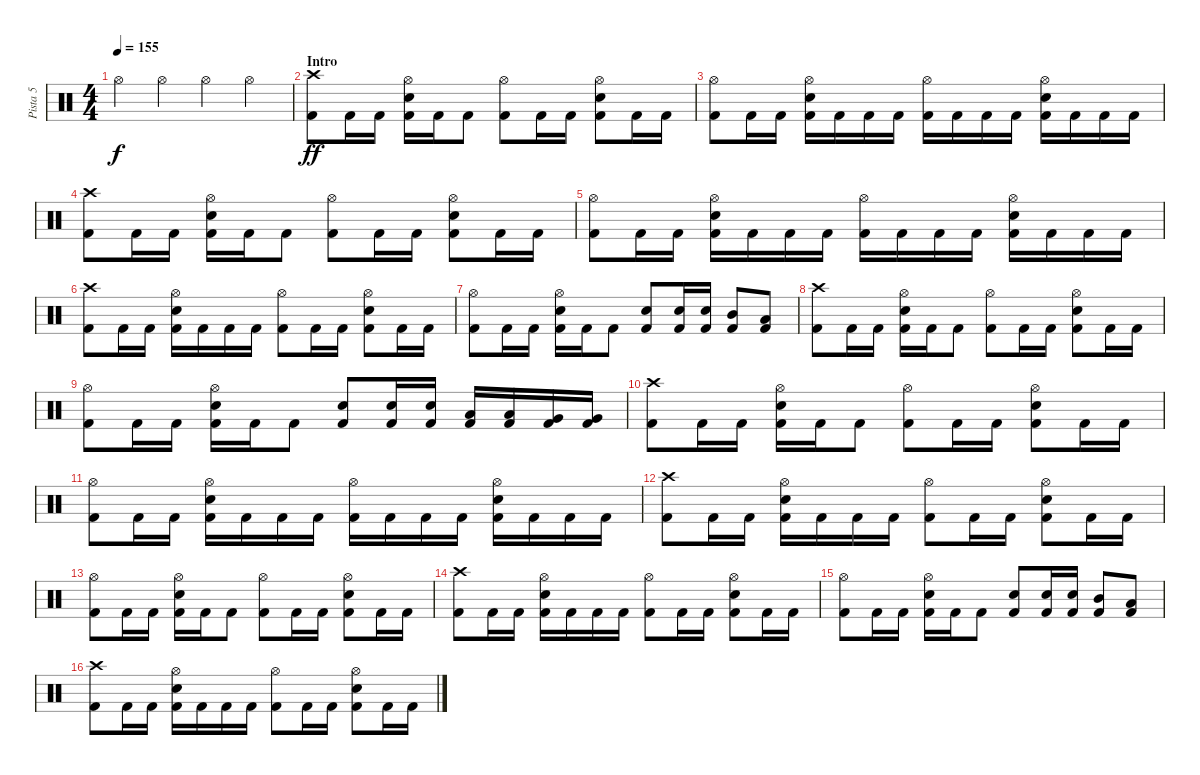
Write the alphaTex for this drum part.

\track ("Pista 5" "Pista 5") {instrument percussion}
\staff {score}
\articulation defaults
\ts (4 4)
\tempo 155
\clef neutral
\ks c "Hi-Hat (open)".4{dy f} "Hi-Hat (open)".4 "Hi-Hat (open)".4 "Hi-Hat (open)".4
|
\section ("" "Intro")
("Crash high (hit)" "Kick (hit) 2").8{dy ff} "Kick (hit) 2".16 "Kick (hit) 2".16 ("Hi-Hat (open)" "Electric Snare (hit)" "Kick (hit) 2").16 "Kick (hit) 2".16 "Kick (hit) 2".8 ("Hi-Hat (open)" "Kick (hit) 2").8 "Kick (hit) 2".16 "Kick (hit) 2".16 ("Hi-Hat (open)" "Electric Snare (hit)" "Kick (hit) 2").8 "Kick (hit) 2".16 "Kick (hit) 2".16 |
("Hi-Hat (open)" "Kick (hit) 2").8 "Kick (hit) 2".16 "Kick (hit) 2".16 ("Hi-Hat (open)" "Electric Snare (hit)" "Kick (hit) 2").16 "Kick (hit) 2".16 "Kick (hit) 2".16 "Kick (hit) 2".16 ("Hi-Hat (open)" "Kick (hit) 2").16 "Kick (hit) 2".16 "Kick (hit) 2".16 "Kick (hit) 2".16 ("Hi-Hat (open)" "Electric Snare (hit)" "Kick (hit) 2").16 "Kick (hit) 2".16 "Kick (hit) 2".16 "Kick (hit) 2".16 |
("Crash high (hit)" "Kick (hit) 2").8 "Kick (hit) 2".16 "Kick (hit) 2".16 ("Hi-Hat (open)" "Electric Snare (hit)" "Kick (hit) 2").16 "Kick (hit) 2".16 "Kick (hit) 2".8 ("Hi-Hat (open)" "Kick (hit) 2").8 "Kick (hit) 2".16 "Kick (hit) 2".16 ("Hi-Hat (open)" "Electric Snare (hit)" "Kick (hit) 2").8 "Kick (hit) 2".16 "Kick (hit) 2".16 |
("Hi-Hat (open)" "Kick (hit) 2").8 "Kick (hit) 2".16 "Kick (hit) 2".16 ("Hi-Hat (open)" "Electric Snare (hit)" "Kick (hit) 2").16 "Kick (hit) 2".16 "Kick (hit) 2".16 "Kick (hit) 2".16 ("Hi-Hat (open)" "Kick (hit) 2").16 "Kick (hit) 2".16 "Kick (hit) 2".16 "Kick (hit) 2".16 ("Hi-Hat (open)" "Electric Snare (hit)" "Kick (hit) 2").16 "Kick (hit) 2".16 "Kick (hit) 2".16 "Kick (hit) 2".16 |
("Crash high (hit)" "Kick (hit) 2").8 "Kick (hit) 2".16 "Kick (hit) 2".16 ("Hi-Hat (open)" "Electric Snare (hit)" "Kick (hit) 2").16 "Kick (hit) 2".16 "Kick (hit) 2".16 "Kick (hit) 2".16 ("Hi-Hat (open)" "Kick (hit) 2").8 "Kick (hit) 2".16 "Kick (hit) 2".16 ("Hi-Hat (open)" "Electric Snare (hit)" "Kick (hit) 2").8 "Kick (hit) 2".16 "Kick (hit) 2".16 |
("Hi-Hat (open)" "Kick (hit) 2").8 "Kick (hit) 2".16 "Kick (hit) 2".16 ("Hi-Hat (open)" "Electric Snare (hit)" "Kick (hit) 2").16 "Kick (hit) 2".16 "Kick (hit) 2".8 ("Electric Snare (hit)" "Kick (hit) 2").8 ("Electric Snare (hit)" "Kick (hit) 2").16 ("Electric Snare (hit)" "Kick (hit) 2").16 ("Mid Tom (hit)" "Kick (hit) 2").8 ("Low Tom (hit)" "Kick (hit) 2").8 |
("Crash high (hit)" "Kick (hit) 2").8 "Kick (hit) 2".16 "Kick (hit) 2".16 ("Hi-Hat (open)" "Electric Snare (hit)" "Kick (hit) 2").16 "Kick (hit) 2".16 "Kick (hit) 2".8 ("Hi-Hat (open)" "Kick (hit) 2").8 "Kick (hit) 2".16 "Kick (hit) 2".16 ("Hi-Hat (open)" "Electric Snare (hit)" "Kick (hit) 2").8 "Kick (hit) 2".16 "Kick (hit) 2".16 |
("Hi-Hat (open)" "Kick (hit) 2").8 "Kick (hit) 2".16 "Kick (hit) 2".16 ("Hi-Hat (open)" "Electric Snare (hit)" "Kick (hit) 2").16 "Kick (hit) 2".16 "Kick (hit) 2".8 ("Electric Snare (hit)" "Kick (hit) 2").8 ("Electric Snare (hit)" "Kick (hit) 2").16 ("Electric Snare (hit)" "Kick (hit) 2").16 ("Low Tom (hit)" "Kick (hit) 2").16 ("Low Tom (hit)" "Kick (hit) 2").16 ("Very Low Tom (hit)" "Kick (hit) 2").16 ("Very Low Tom (hit)" "Kick (hit) 2").16 |
("Crash high (hit)" "Kick (hit) 2").8 "Kick (hit) 2".16 "Kick (hit) 2".16 ("Hi-Hat (open)" "Electric Snare (hit)" "Kick (hit) 2").16 "Kick (hit) 2".16 "Kick (hit) 2".8 ("Hi-Hat (open)" "Kick (hit) 2").8 "Kick (hit) 2".16 "Kick (hit) 2".16 ("Hi-Hat (open)" "Electric Snare (hit)" "Kick (hit) 2").8 "Kick (hit) 2".16 "Kick (hit) 2".16 |
("Hi-Hat (open)" "Kick (hit) 2").8 "Kick (hit) 2".16 "Kick (hit) 2".16 ("Hi-Hat (open)" "Electric Snare (hit)" "Kick (hit) 2").16 "Kick (hit) 2".16 "Kick (hit) 2".16 "Kick (hit) 2".16 ("Hi-Hat (open)" "Kick (hit) 2").16 "Kick (hit) 2".16 "Kick (hit) 2".16 "Kick (hit) 2".16 ("Hi-Hat (open)" "Electric Snare (hit)" "Kick (hit) 2").16 "Kick (hit) 2".16 "Kick (hit) 2".16 "Kick (hit) 2".16 |
("Crash high (hit)" "Kick (hit) 2").8 "Kick (hit) 2".16 "Kick (hit) 2".16 ("Hi-Hat (open)" "Electric Snare (hit)" "Kick (hit) 2").16 "Kick (hit) 2".16 "Kick (hit) 2".16 "Kick (hit) 2".16 ("Hi-Hat (open)" "Kick (hit) 2").8 "Kick (hit) 2".16 "Kick (hit) 2".16 ("Hi-Hat (open)" "Electric Snare (hit)" "Kick (hit) 2").8 "Kick (hit) 2".16 "Kick (hit) 2".16 |
("Hi-Hat (open)" "Kick (hit) 2").8 "Kick (hit) 2".16 "Kick (hit) 2".16 ("Hi-Hat (open)" "Electric Snare (hit)" "Kick (hit) 2").16 "Kick (hit) 2".16 "Kick (hit) 2".8 ("Hi-Hat (open)" "Kick (hit) 2").8 "Kick (hit) 2".16 "Kick (hit) 2".16 ("Hi-Hat (open)" "Electric Snare (hit)" "Kick (hit) 2").8 "Kick (hit) 2".16 "Kick (hit) 2".16 |
("Crash high (hit)" "Kick (hit) 2").8 "Kick (hit) 2".16 "Kick (hit) 2".16 ("Hi-Hat (open)" "Electric Snare (hit)" "Kick (hit) 2").16 "Kick (hit) 2".16 "Kick (hit) 2".16 "Kick (hit) 2".16 ("Hi-Hat (open)" "Kick (hit) 2").8 "Kick (hit) 2".16 "Kick (hit) 2".16 ("Hi-Hat (open)" "Electric Snare (hit)" "Kick (hit) 2").8 "Kick (hit) 2".16 "Kick (hit) 2".16 |
("Hi-Hat (open)" "Kick (hit) 2").8 "Kick (hit) 2".16 "Kick (hit) 2".16 ("Hi-Hat (open)" "Electric Snare (hit)" "Kick (hit) 2").16 "Kick (hit) 2".16 "Kick (hit) 2".8 ("Electric Snare (hit)" "Kick (hit) 2").8 ("Electric Snare (hit)" "Kick (hit) 2").16 ("Electric Snare (hit)" "Kick (hit) 2").16 ("Mid Tom (hit)" "Kick (hit) 2").8 ("Low Tom (hit)" "Kick (hit) 2").8 |
("Crash high (hit)" "Kick (hit) 2").8 "Kick (hit) 2".16 "Kick (hit) 2".16 ("Hi-Hat (open)" "Electric Snare (hit)" "Kick (hit) 2").16 "Kick (hit) 2".16 "Kick (hit) 2".16 "Kick (hit) 2".16 ("Hi-Hat (open)" "Kick (hit) 2").8 "Kick (hit) 2".16 "Kick (hit) 2".16 ("Hi-Hat (open)" "Electric Snare (hit)" "Kick (hit) 2").8 "Kick (hit) 2".16 "Kick (hit) 2".16
